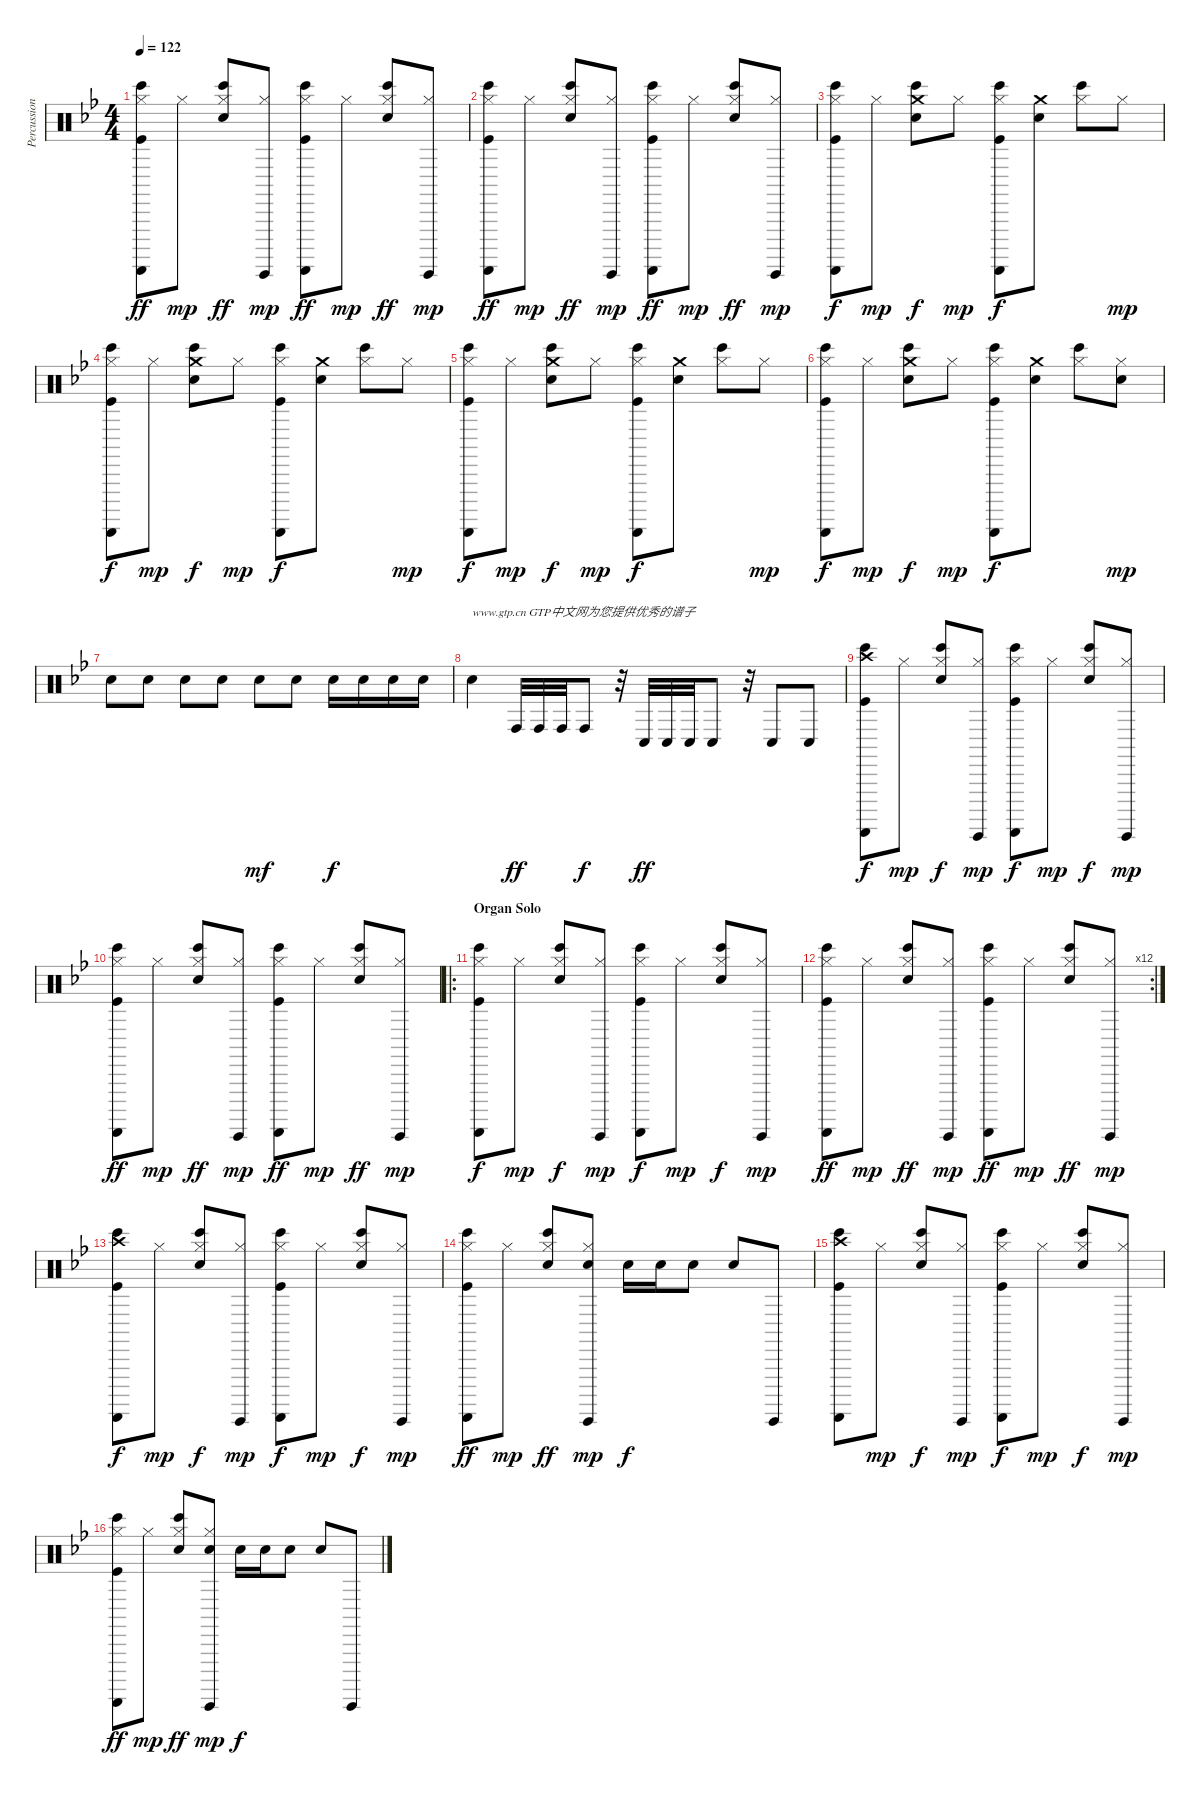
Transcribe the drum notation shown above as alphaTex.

\track ("Percussions" "Percussion") {instrument percussion}
\staff {score}
\articulation defaults
\ts (4 4)
\tempo 122
\clef neutral
\ks bb
("Hi-Hat (closed)" "Bongo High (hit)" "Guiro (scrap-return)" "Kick (hit)").8{dy ff} "Hi-Hat (closed)".8{dy mp} ("Hi-Hat (closed)" "Bongo High (hit)" "Snare (hit) 2").8{dy ff} ("Hi-Hat (closed)" "Guiro (hit)").8{dy mp} ("Hi-Hat (closed)" "Bongo High (hit)" "Guiro (scrap-return)" "Kick (hit)").8{dy ff} "Hi-Hat (closed)".8{dy mp} ("Hi-Hat (closed)" "Bongo High (hit)" "Snare (hit) 2").8{dy ff} ("Hi-Hat (closed)" "Guiro (hit)").8{dy mp} |
("Hi-Hat (closed)" "Bongo High (hit)" "Guiro (scrap-return)" "Kick (hit)").8{dy ff} "Hi-Hat (closed)".8{dy mp} ("Hi-Hat (closed)" "Bongo High (hit)" "Snare (hit) 2").8{dy ff} ("Hi-Hat (closed)" "Guiro (hit)").8{dy mp} ("Hi-Hat (closed)" "Bongo High (hit)" "Guiro (scrap-return)" "Kick (hit)").8{dy ff} "Hi-Hat (closed)".8{dy mp} ("Hi-Hat (closed)" "Bongo High (hit)" "Snare (hit) 2").8{dy ff} ("Hi-Hat (closed)" "Guiro (hit)").8{dy mp} |
("Hi-Hat (closed)" "Bongo High (hit)" "Guiro (scrap-return)" "Kick (hit)").8{dy f} "Hi-Hat (closed)".8{dy mp} ("Crash medium (hit)" "Bongo High (hit)" "Snare (hit) 2").8{dy f} "Hi-Hat (closed)".8{dy mp} ("Hi-Hat (closed)" "Bongo High (hit)" "Guiro (scrap-return)" "Kick (hit)").8{dy f} ("Crash medium (hit)" "Snare (hit) 2").8 ("Hi-Hat (closed)" "Bongo High (hit)").8 "Hi-Hat (closed)".8{dy mp} |
("Hi-Hat (closed)" "Bongo High (hit)" "Guiro (scrap-return)" "Kick (hit)").8{dy f} "Hi-Hat (closed)".8{dy mp} ("Crash medium (hit)" "Bongo High (hit)" "Snare (hit) 2").8{dy f} "Hi-Hat (closed)".8{dy mp} ("Hi-Hat (closed)" "Bongo High (hit)" "Guiro (scrap-return)" "Kick (hit)").8{dy f} ("Crash medium (hit)" "Snare (hit) 2").8 ("Hi-Hat (closed)" "Bongo High (hit)").8 "Hi-Hat (closed)".8{dy mp} |
("Hi-Hat (closed)" "Bongo High (hit)" "Guiro (scrap-return)" "Kick (hit)").8{dy f} "Hi-Hat (closed)".8{dy mp} ("Crash medium (hit)" "Bongo High (hit)" "Snare (hit) 2").8{dy f} "Hi-Hat (closed)".8{dy mp} ("Hi-Hat (closed)" "Bongo High (hit)" "Guiro (scrap-return)" "Kick (hit)").8{dy f} ("Crash medium (hit)" "Snare (hit) 2").8 ("Hi-Hat (closed)" "Bongo High (hit)").8 "Hi-Hat (closed)".8{dy mp} |
("Hi-Hat (closed)" "Bongo High (hit)" "Guiro (scrap-return)" "Kick (hit)").8{dy f} "Hi-Hat (closed)".8{dy mp} ("Crash medium (hit)" "Bongo High (hit)" "Snare (hit) 2").8{dy f} "Hi-Hat (closed)".8{dy mp} ("Hi-Hat (closed)" "Bongo High (hit)" "Guiro (scrap-return)" "Kick (hit)").8{dy f} ("Crash medium (hit)" "Snare (hit) 2").8 ("Hi-Hat (closed)" "Bongo High (hit)").8 ("Hi-Hat (closed)" "Snare (hit) 2").8{dy mp} |
"Snare (hit) 2".8 "Snare (hit) 2".8 "Snare (hit) 2".8 "Snare (hit) 2".8 "Snare (hit) 2".8{dy mf} "Snare (hit) 2".8 "Snare (hit) 2".16{dy f} "Snare (hit) 2".16 "Snare (hit) 2".16 "Snare (hit) 2".16 |
"Snare (hit) 2".4{txt "www.gtp.cn GTP中文网为您提供优秀的谱子"} "Conga high (hit)".32{dy ff balance 0} "Conga high (hit)".32 "Conga high (hit)".32 "Conga high (hit)".8{dy f} r.32 "Conga low (hit)".32{dy ff balance 16} "Conga low (hit)".32 "Conga low (hit)".32 "Conga low (hit)".8 r.32 "Conga low (hit)".8{balance 8} "Conga low (hit)".8 |
("Crash high (hit)" "Bongo High (hit)" "Guiro (scrap-return)" "Kick (hit)").8{dy f} "Hi-Hat (closed)".8{dy mp} ("Hi-Hat (closed)" "Bongo High (hit)" "Snare (hit) 2").8{dy f} ("Hi-Hat (closed)" "Guiro (hit)").8{dy mp} ("Hi-Hat (closed)" "Bongo High (hit)" "Guiro (scrap-return)" "Kick (hit)").8{dy f} "Hi-Hat (closed)".8{dy mp} ("Hi-Hat (closed)" "Bongo High (hit)" "Snare (hit) 2").8{dy f} ("Hi-Hat (closed)" "Guiro (hit)").8{dy mp} |
("Hi-Hat (closed)" "Bongo High (hit)" "Guiro (scrap-return)" "Kick (hit)").8{dy ff} "Hi-Hat (closed)".8{dy mp} ("Hi-Hat (closed)" "Bongo High (hit)" "Snare (hit) 2").8{dy ff} ("Hi-Hat (closed)" "Guiro (hit)").8{dy mp} ("Hi-Hat (closed)" "Bongo High (hit)" "Guiro (scrap-return)" "Kick (hit)").8{dy ff} "Hi-Hat (closed)".8{dy mp} ("Hi-Hat (closed)" "Bongo High (hit)" "Snare (hit) 2").8{dy ff} ("Hi-Hat (closed)" "Guiro (hit)").8{dy mp} |
\ro
\section ("" "Organ Solo")
("Hi-Hat (closed)" "Bongo High (hit)" "Guiro (scrap-return)" "Kick (hit)").8{dy f} "Hi-Hat (closed)".8{dy mp} ("Hi-Hat (closed)" "Bongo High (hit)" "Snare (hit) 2").8{dy f} ("Hi-Hat (closed)" "Guiro (hit)").8{dy mp} ("Hi-Hat (closed)" "Bongo High (hit)" "Guiro (scrap-return)" "Kick (hit)").8{dy f} "Hi-Hat (closed)".8{dy mp} ("Hi-Hat (closed)" "Bongo High (hit)" "Snare (hit) 2").8{dy f} ("Hi-Hat (closed)" "Guiro (hit)").8{dy mp} |
\rc 12
("Hi-Hat (closed)" "Bongo High (hit)" "Guiro (scrap-return)" "Kick (hit)").8{dy ff} "Hi-Hat (closed)".8{dy mp} ("Hi-Hat (closed)" "Bongo High (hit)" "Snare (hit) 2").8{dy ff} ("Hi-Hat (closed)" "Guiro (hit)").8{dy mp} ("Hi-Hat (closed)" "Bongo High (hit)" "Guiro (scrap-return)" "Kick (hit)").8{dy ff} "Hi-Hat (closed)".8{dy mp} ("Hi-Hat (closed)" "Bongo High (hit)" "Snare (hit) 2").8{dy ff} ("Hi-Hat (closed)" "Guiro (hit)").8{dy mp} |
("Crash high (hit)" "Bongo High (hit)" "Guiro (scrap-return)" "Kick (hit)").8{dy f} "Hi-Hat (closed)".8{dy mp} ("Hi-Hat (closed)" "Bongo High (hit)" "Snare (hit) 2").8{dy f} ("Hi-Hat (closed)" "Guiro (hit)").8{dy mp} ("Hi-Hat (closed)" "Bongo High (hit)" "Guiro (scrap-return)" "Kick (hit)").8{dy f} "Hi-Hat (closed)".8{dy mp} ("Hi-Hat (closed)" "Bongo High (hit)" "Snare (hit) 2").8{dy f} ("Hi-Hat (closed)" "Guiro (hit)").8{dy mp} |
("Hi-Hat (closed)" "Bongo High (hit)" "Guiro (scrap-return)" "Kick (hit)").8{dy ff} "Hi-Hat (closed)".8{dy mp} ("Hi-Hat (closed)" "Bongo High (hit)" "Snare (hit) 2").8{dy ff} ("Hi-Hat (closed)" "Guiro (hit)" "Snare (hit) 2").8{dy mp} "Snare (hit) 2".16{dy f} "Snare (hit) 2".16 "Snare (hit) 2".8 "Snare (hit) 2".8 "Guiro (hit)".8 |
("Crash high (hit)" "Bongo High (hit)" "Guiro (scrap-return)" "Kick (hit)").8 "Hi-Hat (closed)".8{dy mp} ("Hi-Hat (closed)" "Bongo High (hit)" "Snare (hit) 2").8{dy f} ("Hi-Hat (closed)" "Guiro (hit)").8{dy mp} ("Hi-Hat (closed)" "Bongo High (hit)" "Guiro (scrap-return)" "Kick (hit)").8{dy f} "Hi-Hat (closed)".8{dy mp} ("Hi-Hat (closed)" "Bongo High (hit)" "Snare (hit) 2").8{dy f} ("Hi-Hat (closed)" "Guiro (hit)").8{dy mp} |
("Hi-Hat (closed)" "Bongo High (hit)" "Guiro (scrap-return)" "Kick (hit)").8{dy ff} "Hi-Hat (closed)".8{dy mp} ("Hi-Hat (closed)" "Bongo High (hit)" "Snare (hit) 2").8{dy ff} ("Hi-Hat (closed)" "Guiro (hit)" "Snare (hit) 2").8{dy mp} "Snare (hit) 2".16{dy f} "Snare (hit) 2".16 "Snare (hit) 2".8 "Snare (hit) 2".8 "Guiro (hit)".8
